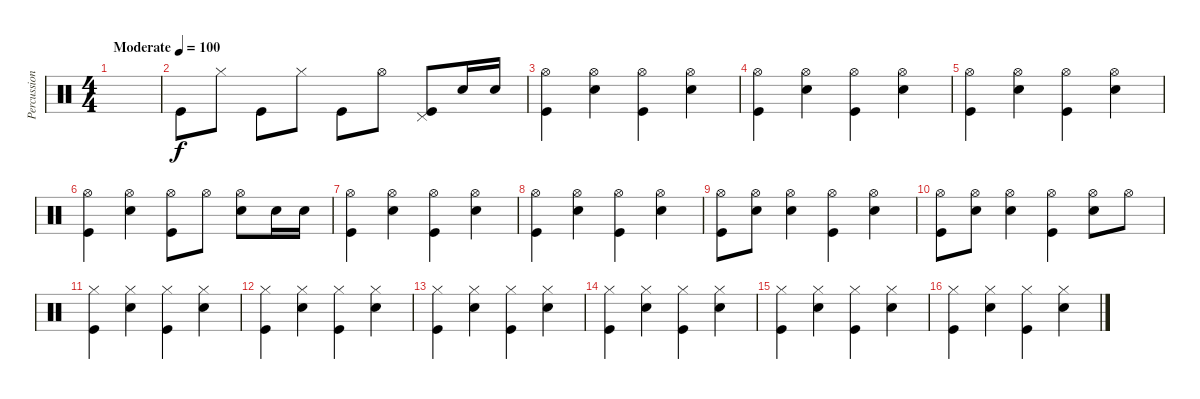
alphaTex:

\track ("Percussion" "Percussion") {instrument percussion}
\staff {score}
\articulation defaults
\ts (4 4)
\tempo (100 "Moderate")
\clef neutral
\ks c
|
"Kick (hit)".8 "Hi-Hat (closed)".8 "Kick (hit)".8 "Hi-Hat (closed)".8 "Kick (hit)".8 "Hi-Hat (open)".8 ("Pedal Hi-Hat (hit)" "Kick (hit)").8 "Snare (hit) 2".16 "Snare (hit) 2".16 |
("Hi-Hat (open)" "Kick (hit)").4 ("Hi-Hat (open)" "Snare (hit) 2").4 ("Hi-Hat (open)" "Kick (hit)").4 ("Hi-Hat (open)" "Snare (hit) 2").4 |
("Hi-Hat (open)" "Kick (hit)").4 ("Hi-Hat (open)" "Snare (hit) 2").4 ("Hi-Hat (open)" "Kick (hit)").4 ("Hi-Hat (open)" "Snare (hit) 2").4 |
("Hi-Hat (open)" "Kick (hit)").4 ("Hi-Hat (open)" "Snare (hit) 2").4 ("Hi-Hat (open)" "Kick (hit)").4 ("Hi-Hat (open)" "Snare (hit) 2").4 |
("Hi-Hat (open)" "Kick (hit)").4 ("Hi-Hat (open)" "Snare (hit) 2").4 ("Hi-Hat (open)" "Kick (hit)").8 "Hi-Hat (open)".8 ("Hi-Hat (open)" "Snare (hit) 2").8 "Snare (hit) 2".16 "Snare (hit) 2".16 |
("Hi-Hat (open)" "Kick (hit)").4 ("Hi-Hat (open)" "Snare (hit) 2").4 ("Hi-Hat (open)" "Kick (hit)").4 ("Hi-Hat (open)" "Snare (hit) 2").4 |
("Hi-Hat (open)" "Kick (hit)").4 ("Hi-Hat (open)" "Snare (hit) 2").4 ("Hi-Hat (open)" "Kick (hit)").4 ("Hi-Hat (open)" "Snare (hit) 2").4 |
("Hi-Hat (open)" "Kick (hit)").8 ("Hi-Hat (open)" "Snare (hit) 2").8 ("Hi-Hat (open)" "Snare (hit) 2").4 ("Hi-Hat (open)" "Kick (hit)").4 ("Hi-Hat (open)" "Snare (hit) 2").4 |
("Hi-Hat (open)" "Kick (hit)").8 ("Hi-Hat (open)" "Snare (hit) 2").8 ("Hi-Hat (open)" "Snare (hit) 2").4 ("Hi-Hat (open)" "Kick (hit)").4 ("Hi-Hat (open)" "Snare (hit) 2").8 "Hi-Hat (open)".8 |
("Hi-Hat (closed)" "Kick (hit)").4 ("Hi-Hat (closed)" "Snare (hit) 2").4 ("Hi-Hat (closed)" "Kick (hit)").4 ("Hi-Hat (closed)" "Snare (hit) 2").4 |
("Hi-Hat (closed)" "Kick (hit)").4 ("Hi-Hat (closed)" "Snare (hit) 2").4 ("Hi-Hat (closed)" "Kick (hit)").4 ("Hi-Hat (closed)" "Snare (hit) 2").4 |
("Hi-Hat (closed)" "Kick (hit)").4 ("Hi-Hat (closed)" "Snare (hit) 2").4 ("Hi-Hat (closed)" "Kick (hit)").4 ("Hi-Hat (closed)" "Snare (hit) 2").4 |
("Hi-Hat (closed)" "Kick (hit)").4 ("Hi-Hat (closed)" "Snare (hit) 2").4 ("Hi-Hat (closed)" "Kick (hit)").4 ("Hi-Hat (closed)" "Snare (hit) 2").4 |
("Hi-Hat (closed)" "Kick (hit)").4 ("Hi-Hat (closed)" "Snare (hit) 2").4 ("Hi-Hat (closed)" "Kick (hit)").4 ("Hi-Hat (closed)" "Snare (hit) 2").4 |
("Hi-Hat (closed)" "Kick (hit)").4 ("Hi-Hat (closed)" "Snare (hit) 2").4 ("Hi-Hat (closed)" "Kick (hit)").4 ("Hi-Hat (closed)" "Snare (hit) 2").4
